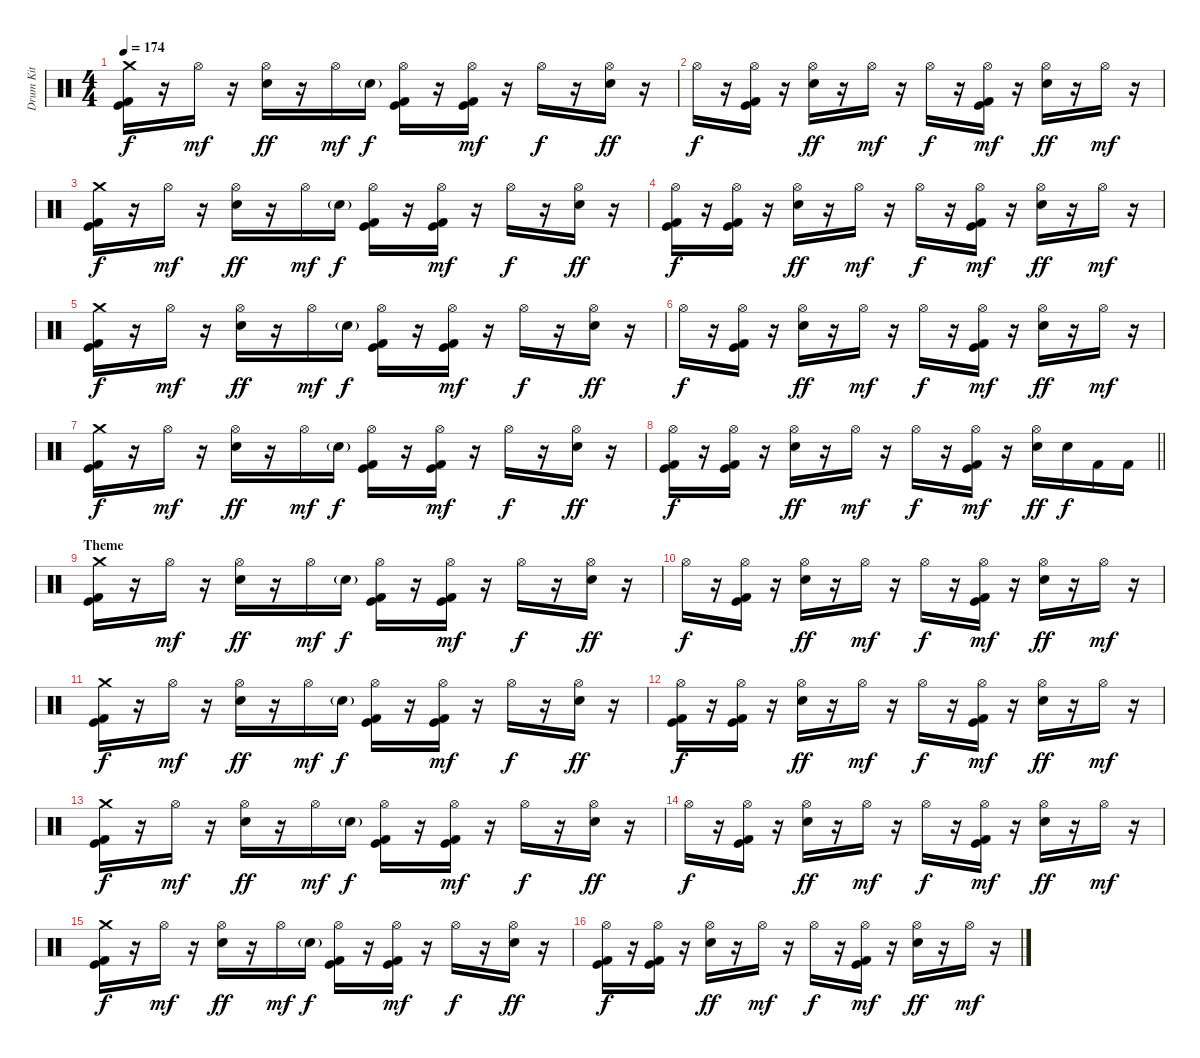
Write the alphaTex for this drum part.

\track ("Drum Kit" "Drum Kit") {instrument percussion}
\staff {score}
\articulation defaults
\ts (4 4)
\tempo 174
\clef neutral
\ks c
("Crash medium (hit)" "Kick (hit)" "Kick (hit) 2").16{dy f} r.16 "Hi-Hat (open)".16{dy mf} r.16 ("Hi-Hat (open)" "Electric Snare (hit)").16{dy ff} r.16 "Hi-Hat (open)".16{dy mf} "Electric Snare (hit)"{g}.16{dy f} ("Hi-Hat (open)" "Kick (hit)" "Kick (hit) 2").16 r.16 ("Hi-Hat (open)" "Kick (hit)" "Kick (hit) 2").16{dy mf} r.16 "Hi-Hat (open)".16{dy f} r.16 ("Hi-Hat (open)" "Electric Snare (hit)").16{dy ff} r.16 |
"Hi-Hat (open)".16{dy f} r.16 ("Hi-Hat (open)" "Kick (hit)" "Kick (hit) 2").16 r.16 ("Hi-Hat (open)" "Electric Snare (hit)").16{dy ff} r.16 "Hi-Hat (open)".16{dy mf} r.16 "Hi-Hat (open)".16{dy f} r.16 ("Hi-Hat (open)" "Kick (hit)" "Kick (hit) 2").16{dy mf} r.16 ("Hi-Hat (open)" "Electric Snare (hit)").16{dy ff} r.16 "Hi-Hat (open)".16{dy mf} r.16 |
("Crash medium (hit)" "Kick (hit)" "Kick (hit) 2").16{dy f} r.16 "Hi-Hat (open)".16{dy mf} r.16 ("Hi-Hat (open)" "Electric Snare (hit)").16{dy ff} r.16 "Hi-Hat (open)".16{dy mf} "Electric Snare (hit)"{g}.16{dy f} ("Hi-Hat (open)" "Kick (hit)" "Kick (hit) 2").16 r.16 ("Hi-Hat (open)" "Kick (hit)" "Kick (hit) 2").16{dy mf} r.16 "Hi-Hat (open)".16{dy f} r.16 ("Hi-Hat (open)" "Electric Snare (hit)").16{dy ff} r.16 |
("Hi-Hat (open)" "Kick (hit)" "Kick (hit) 2").16{dy f} r.16 ("Hi-Hat (open)" "Kick (hit)" "Kick (hit) 2").16 r.16 ("Hi-Hat (open)" "Electric Snare (hit)").16{dy ff} r.16 "Hi-Hat (open)".16{dy mf} r.16 "Hi-Hat (open)".16{dy f} r.16 ("Hi-Hat (open)" "Kick (hit)" "Kick (hit) 2").16{dy mf} r.16 ("Hi-Hat (open)" "Electric Snare (hit)").16{dy ff} r.16 "Hi-Hat (open)".16{dy mf} r.16 |
("Crash medium (hit)" "Kick (hit)" "Kick (hit) 2").16{dy f} r.16 "Hi-Hat (open)".16{dy mf} r.16 ("Hi-Hat (open)" "Electric Snare (hit)").16{dy ff} r.16 "Hi-Hat (open)".16{dy mf} "Electric Snare (hit)"{g}.16{dy f} ("Hi-Hat (open)" "Kick (hit)" "Kick (hit) 2").16 r.16 ("Hi-Hat (open)" "Kick (hit)" "Kick (hit) 2").16{dy mf} r.16 "Hi-Hat (open)".16{dy f} r.16 ("Hi-Hat (open)" "Electric Snare (hit)").16{dy ff} r.16 |
"Hi-Hat (open)".16{dy f} r.16 ("Hi-Hat (open)" "Kick (hit)" "Kick (hit) 2").16 r.16 ("Hi-Hat (open)" "Electric Snare (hit)").16{dy ff} r.16 "Hi-Hat (open)".16{dy mf} r.16 "Hi-Hat (open)".16{dy f} r.16 ("Hi-Hat (open)" "Kick (hit)" "Kick (hit) 2").16{dy mf} r.16 ("Hi-Hat (open)" "Electric Snare (hit)").16{dy ff} r.16 "Hi-Hat (open)".16{dy mf} r.16 |
("Crash medium (hit)" "Kick (hit)" "Kick (hit) 2").16{dy f} r.16 "Hi-Hat (open)".16{dy mf} r.16 ("Hi-Hat (open)" "Electric Snare (hit)").16{dy ff} r.16 "Hi-Hat (open)".16{dy mf} "Electric Snare (hit)"{g}.16{dy f} ("Hi-Hat (open)" "Kick (hit)" "Kick (hit) 2").16 r.16 ("Hi-Hat (open)" "Kick (hit)" "Kick (hit) 2").16{dy mf} r.16 "Hi-Hat (open)".16{dy f} r.16 ("Hi-Hat (open)" "Electric Snare (hit)").16{dy ff} r.16 |
\barLineRight lightlight
("Hi-Hat (open)" "Kick (hit)" "Kick (hit) 2").16{dy f} r.16 ("Hi-Hat (open)" "Kick (hit)" "Kick (hit) 2").16 r.16 ("Hi-Hat (open)" "Electric Snare (hit)").16{dy ff} r.16 "Hi-Hat (open)".16{dy mf} r.16 "Hi-Hat (open)".16{dy f} r.16 ("Hi-Hat (open)" "Kick (hit)" "Kick (hit) 2").16{dy mf} r.16 ("Hi-Hat (open)" "Electric Snare (hit)").16{dy ff} "Electric Snare (hit)".16{dy f} "Kick (hit) 2".16 "Kick (hit) 2".16 |
\section ("" "Theme")
("Crash medium (hit)" "Kick (hit)" "Kick (hit) 2").16 r.16 "Hi-Hat (open)".16{dy mf} r.16 ("Hi-Hat (open)" "Electric Snare (hit)").16{dy ff} r.16 "Hi-Hat (open)".16{dy mf} "Electric Snare (hit)"{g}.16{dy f} ("Hi-Hat (open)" "Kick (hit)" "Kick (hit) 2").16 r.16 ("Hi-Hat (open)" "Kick (hit)" "Kick (hit) 2").16{dy mf} r.16 "Hi-Hat (open)".16{dy f} r.16 ("Hi-Hat (open)" "Electric Snare (hit)").16{dy ff} r.16 |
"Hi-Hat (open)".16{dy f} r.16 ("Hi-Hat (open)" "Kick (hit)" "Kick (hit) 2").16 r.16 ("Hi-Hat (open)" "Electric Snare (hit)").16{dy ff} r.16 "Hi-Hat (open)".16{dy mf} r.16 "Hi-Hat (open)".16{dy f} r.16 ("Hi-Hat (open)" "Kick (hit)" "Kick (hit) 2").16{dy mf} r.16 ("Hi-Hat (open)" "Electric Snare (hit)").16{dy ff} r.16 "Hi-Hat (open)".16{dy mf} r.16 |
("Crash medium (hit)" "Kick (hit)" "Kick (hit) 2").16{dy f} r.16 "Hi-Hat (open)".16{dy mf} r.16 ("Hi-Hat (open)" "Electric Snare (hit)").16{dy ff} r.16 "Hi-Hat (open)".16{dy mf} "Electric Snare (hit)"{g}.16{dy f} ("Hi-Hat (open)" "Kick (hit)" "Kick (hit) 2").16 r.16 ("Hi-Hat (open)" "Kick (hit)" "Kick (hit) 2").16{dy mf} r.16 "Hi-Hat (open)".16{dy f} r.16 ("Hi-Hat (open)" "Electric Snare (hit)").16{dy ff} r.16 |
("Hi-Hat (open)" "Kick (hit)" "Kick (hit) 2").16{dy f} r.16 ("Hi-Hat (open)" "Kick (hit)" "Kick (hit) 2").16 r.16 ("Hi-Hat (open)" "Electric Snare (hit)").16{dy ff} r.16 "Hi-Hat (open)".16{dy mf} r.16 "Hi-Hat (open)".16{dy f} r.16 ("Hi-Hat (open)" "Kick (hit)" "Kick (hit) 2").16{dy mf} r.16 ("Hi-Hat (open)" "Electric Snare (hit)").16{dy ff} r.16 "Hi-Hat (open)".16{dy mf} r.16 |
("Crash medium (hit)" "Kick (hit)" "Kick (hit) 2").16{dy f} r.16 "Hi-Hat (open)".16{dy mf} r.16 ("Hi-Hat (open)" "Electric Snare (hit)").16{dy ff} r.16 "Hi-Hat (open)".16{dy mf} "Electric Snare (hit)"{g}.16{dy f} ("Hi-Hat (open)" "Kick (hit)" "Kick (hit) 2").16 r.16 ("Hi-Hat (open)" "Kick (hit)" "Kick (hit) 2").16{dy mf} r.16 "Hi-Hat (open)".16{dy f} r.16 ("Hi-Hat (open)" "Electric Snare (hit)").16{dy ff} r.16 |
"Hi-Hat (open)".16{dy f} r.16 ("Hi-Hat (open)" "Kick (hit)" "Kick (hit) 2").16 r.16 ("Hi-Hat (open)" "Electric Snare (hit)").16{dy ff} r.16 "Hi-Hat (open)".16{dy mf} r.16 "Hi-Hat (open)".16{dy f} r.16 ("Hi-Hat (open)" "Kick (hit)" "Kick (hit) 2").16{dy mf} r.16 ("Hi-Hat (open)" "Electric Snare (hit)").16{dy ff} r.16 "Hi-Hat (open)".16{dy mf} r.16 |
("Crash medium (hit)" "Kick (hit)" "Kick (hit) 2").16{dy f} r.16 "Hi-Hat (open)".16{dy mf} r.16 ("Hi-Hat (open)" "Electric Snare (hit)").16{dy ff} r.16 "Hi-Hat (open)".16{dy mf} "Electric Snare (hit)"{g}.16{dy f} ("Hi-Hat (open)" "Kick (hit)" "Kick (hit) 2").16 r.16 ("Hi-Hat (open)" "Kick (hit)" "Kick (hit) 2").16{dy mf} r.16 "Hi-Hat (open)".16{dy f} r.16 ("Hi-Hat (open)" "Electric Snare (hit)").16{dy ff} r.16 |
("Hi-Hat (open)" "Kick (hit)" "Kick (hit) 2").16{dy f} r.16 ("Hi-Hat (open)" "Kick (hit)" "Kick (hit) 2").16 r.16 ("Hi-Hat (open)" "Electric Snare (hit)").16{dy ff} r.16 "Hi-Hat (open)".16{dy mf} r.16 "Hi-Hat (open)".16{dy f} r.16 ("Hi-Hat (open)" "Kick (hit)" "Kick (hit) 2").16{dy mf} r.16 ("Hi-Hat (open)" "Electric Snare (hit)").16{dy ff} r.16 "Hi-Hat (open)".16{dy mf} r.16
